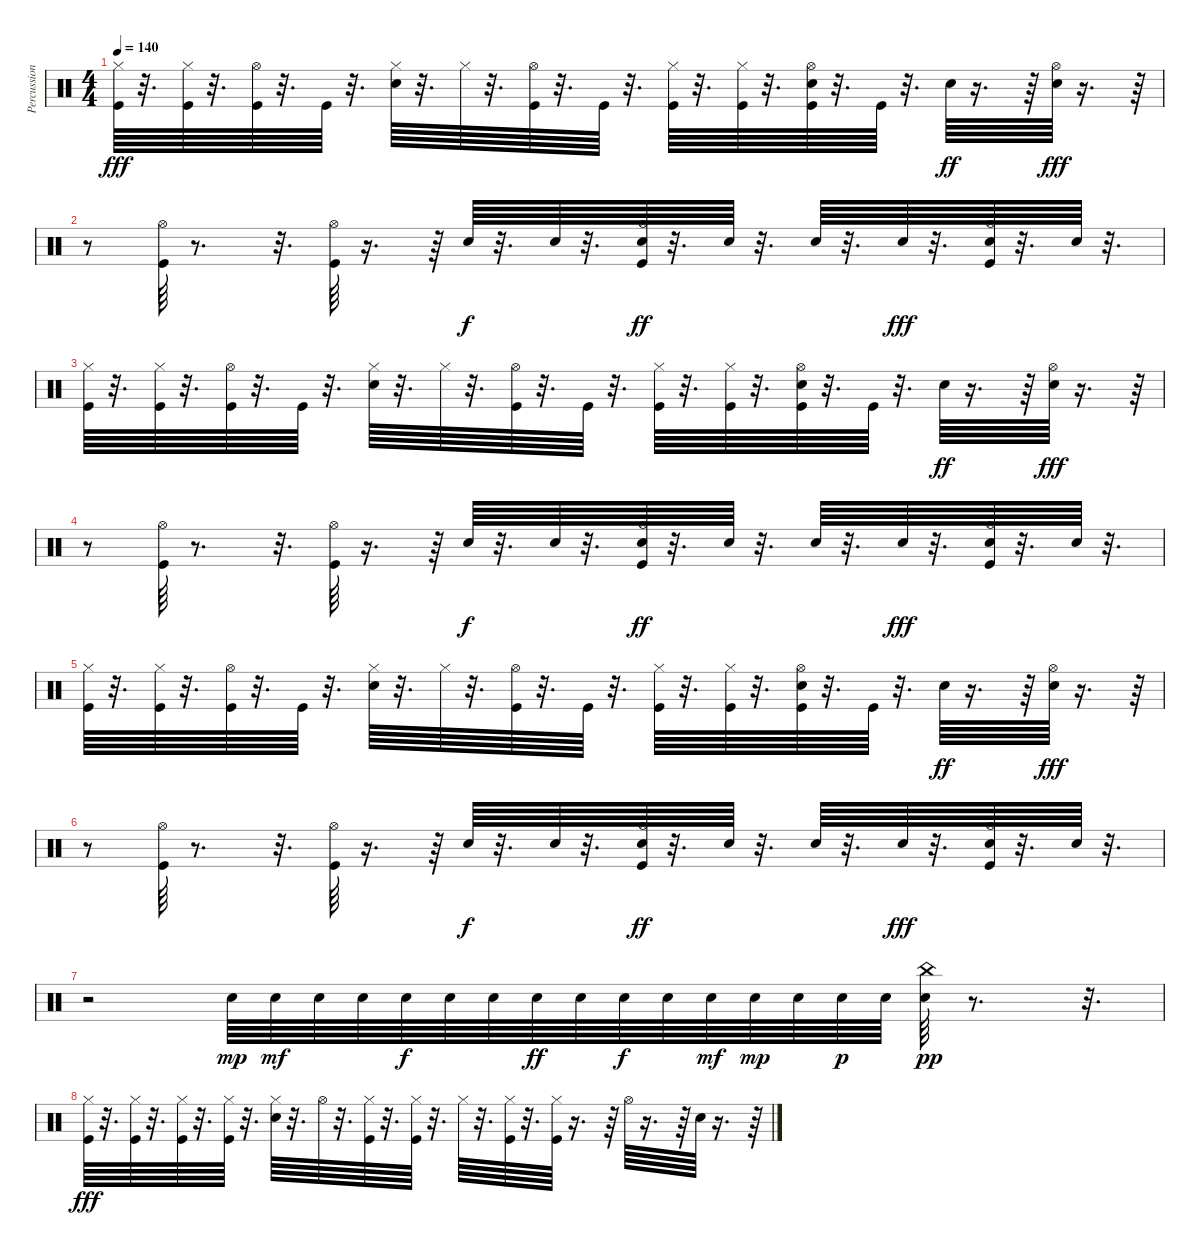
\track ("Percussion [Room Kit]" "Percussion") {instrument percussion}
\staff {score}
\articulation defaults
\ts (4 4)
\tempo 140
\clef neutral
\ks c
("Hi-Hat (closed)" "Kick (hit)").64{dy fff} r.32{d} ("Hi-Hat (closed)" "Kick (hit)").64 r.32{d} ("Hi-Hat (open)" "Kick (hit)").64 r.32{d} "Kick (hit)".64 r.32{d} ("Hi-Hat (closed)" "Electric Snare (hit)").64 r.32{d} "Hi-Hat (closed)".64 r.32{d} ("Hi-Hat (open)" "Kick (hit)").64 r.32{d} "Kick (hit)".64 r.32{d} ("Hi-Hat (closed)" "Kick (hit)").64 r.32{d} ("Hi-Hat (closed)" "Kick (hit)").64 r.32{d} ("Hi-Hat (open)" "Kick (hit)" "Electric Snare (hit)").64 r.32{d} "Kick (hit)".64 r.32{d} "Electric Snare (hit)".64{dy ff} r.16{d} r.64 ("Hi-Hat (open)" "Electric Snare (hit)").64{dy fff} r.16{d} r.64 |
r.8 ("Kick (hit)" "Hi-Hat (open)").64 r.8{d} r.32{d} ("Kick (hit)" "Hi-Hat (open)").64 r.16{d} r.64 "Electric Snare (hit)".64{dy f} r.32{d} "Electric Snare (hit)".64 r.32{d} ("Kick (hit)" "Hi-Hat (open)" "Electric Snare (hit)").64{dy ff} r.32{d} "Electric Snare (hit)".64 r.32{d} "Electric Snare (hit)".64 r.32{d} "Electric Snare (hit)".64{dy fff} r.32{d} ("Kick (hit)" "Hi-Hat (open)" "Electric Snare (hit)").64 r.32{d} "Electric Snare (hit)".64 r.32{d} |
("Hi-Hat (closed)" "Kick (hit)").64 r.32{d} ("Hi-Hat (closed)" "Kick (hit)").64 r.32{d} ("Hi-Hat (open)" "Kick (hit)").64 r.32{d} "Kick (hit)".64 r.32{d} ("Hi-Hat (closed)" "Electric Snare (hit)").64 r.32{d} "Hi-Hat (closed)".64 r.32{d} ("Hi-Hat (open)" "Kick (hit)").64 r.32{d} "Kick (hit)".64 r.32{d} ("Hi-Hat (closed)" "Kick (hit)").64 r.32{d} ("Hi-Hat (closed)" "Kick (hit)").64 r.32{d} ("Hi-Hat (open)" "Kick (hit)" "Electric Snare (hit)").64 r.32{d} "Kick (hit)".64 r.32{d} "Electric Snare (hit)".64{dy ff} r.16{d} r.64 ("Hi-Hat (open)" "Electric Snare (hit)").64{dy fff} r.16{d} r.64 |
r.8 ("Kick (hit)" "Hi-Hat (open)").64 r.8{d} r.32{d} ("Kick (hit)" "Hi-Hat (open)").64 r.16{d} r.64 "Electric Snare (hit)".64{dy f} r.32{d} "Electric Snare (hit)".64 r.32{d} ("Kick (hit)" "Hi-Hat (open)" "Electric Snare (hit)").64{dy ff} r.32{d} "Electric Snare (hit)".64 r.32{d} "Electric Snare (hit)".64 r.32{d} "Electric Snare (hit)".64{dy fff} r.32{d} ("Kick (hit)" "Hi-Hat (open)" "Electric Snare (hit)").64 r.32{d} "Electric Snare (hit)".64 r.32{d} |
("Hi-Hat (closed)" "Kick (hit)").64 r.32{d} ("Hi-Hat (closed)" "Kick (hit)").64 r.32{d} ("Hi-Hat (open)" "Kick (hit)").64 r.32{d} "Kick (hit)".64 r.32{d} ("Hi-Hat (closed)" "Electric Snare (hit)").64 r.32{d} "Hi-Hat (closed)".64 r.32{d} ("Hi-Hat (open)" "Kick (hit)").64 r.32{d} "Kick (hit)".64 r.32{d} ("Hi-Hat (closed)" "Kick (hit)").64 r.32{d} ("Hi-Hat (closed)" "Kick (hit)").64 r.32{d} ("Hi-Hat (open)" "Kick (hit)" "Electric Snare (hit)").64 r.32{d} "Kick (hit)".64 r.32{d} "Electric Snare (hit)".64{dy ff} r.16{d} r.64 ("Hi-Hat (open)" "Electric Snare (hit)").64{dy fff} r.16{d} r.64 |
r.8 ("Kick (hit)" "Hi-Hat (open)").64 r.8{d} r.32{d} ("Kick (hit)" "Hi-Hat (open)").64 r.16{d} r.64 "Electric Snare (hit)".64{dy f} r.32{d} "Electric Snare (hit)".64 r.32{d} ("Kick (hit)" "Hi-Hat (open)" "Electric Snare (hit)").64{dy ff} r.32{d} "Electric Snare (hit)".64 r.32{d} "Electric Snare (hit)".64 r.32{d} "Electric Snare (hit)".64{dy fff} r.32{d} ("Kick (hit)" "Hi-Hat (open)" "Electric Snare (hit)").64 r.32{d} "Electric Snare (hit)".64 r.32{d} |
r.2 "Electric Snare (hit)".64{dy mp} "Electric Snare (hit)".64{dy mf} "Electric Snare (hit)".64 "Electric Snare (hit)".64 "Electric Snare (hit)".64{dy f} "Electric Snare (hit)".64 "Electric Snare (hit)".64 "Electric Snare (hit)".64{dy ff} "Electric Snare (hit)".64 "Electric Snare (hit)".64{dy f} "Electric Snare (hit)".64 "Electric Snare (hit)".64{dy mf} "Electric Snare (hit)".64{dy mp} "Electric Snare (hit)".64 "Electric Snare (hit)".64{dy p} "Electric Snare (hit)".64 ("China (hit)" "Electric Snare (hit)").64{dy pp} r.8{d} r.32{d} |
("Kick (hit)" "Hi-Hat (closed)").64{dy fff} r.32{d} ("Kick (hit)" "Hi-Hat (closed)").64 r.32{d} ("Kick (hit)" "Hi-Hat (closed)").64 r.32{d} ("Kick (hit)" "Hi-Hat (closed)").64 r.32{d} ("Electric Snare (hit)" "Hi-Hat (closed)").64 r.32{d} "Hi-Hat (open)".64 r.32{d} ("Kick (hit)" "Hi-Hat (closed)").64 r.32{d} ("Kick (hit)" "Hi-Hat (closed)").64 r.32{d} "Hi-Hat (closed)".64 r.32{d} ("Kick (hit)" "Hi-Hat (closed)").64 r.32{d} ("Kick (hit)" "Hi-Hat (closed)").64 r.16{d} r.64 "Hi-Hat (open)".64 r.16{d} r.64 "Electric Snare (hit)".64 r.16{d} r.64
